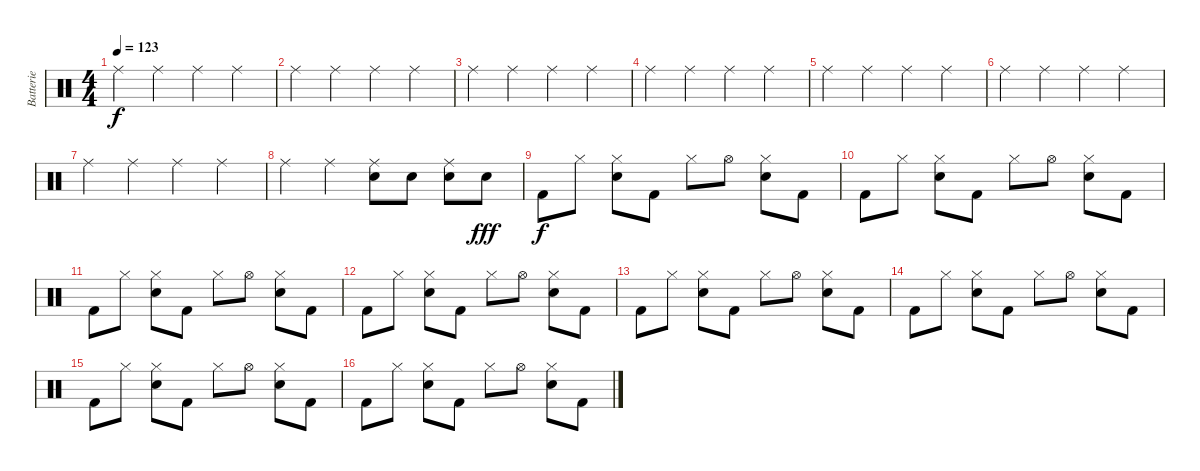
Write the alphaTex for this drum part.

\track ("Batterie" "Batterie") {instrument percussion}
\staff {score}
\articulation defaults
\ts (4 4)
\tempo 123
\clef neutral
\ks c "Ride (middle)".4{dy f} "Ride (middle)".4 "Ride (middle)".4 "Ride (middle)".4
|
"Ride (middle)".4 "Ride (middle)".4 "Ride (middle)".4 "Ride (middle)".4 |
"Ride (middle)".4 "Ride (middle)".4 "Ride (middle)".4 "Ride (middle)".4 |
"Ride (middle)".4 "Ride (middle)".4 "Ride (middle)".4 "Ride (middle)".4 |
"Ride (middle)".4 "Ride (middle)".4 "Ride (middle)".4 "Ride (middle)".4 |
"Ride (middle)".4 "Ride (middle)".4 "Ride (middle)".4 "Ride (middle)".4 |
"Ride (middle)".4 "Ride (middle)".4 "Ride (middle)".4 "Ride (middle)".4 |
"Ride (middle)".4 "Ride (middle)".4 ("Snare (hit) 2" "Ride (middle)").8 "Electric Snare (hit)".8 ("Electric Snare (hit)" "Ride (middle)").8 "Electric Snare (hit)".8{dy fff} |
"Kick (hit) 2".8{dy f} "Hi-Hat (closed)".8 ("Electric Snare (hit)" "Hi-Hat (closed)").8 "Kick (hit) 2".8 "Hi-Hat (closed)".8 "Hi-Hat (open)".8 ("Snare (hit) 2" "Hi-Hat (closed)").8 "Kick (hit) 2".8 |
"Kick (hit) 2".8 "Hi-Hat (closed)".8 ("Electric Snare (hit)" "Hi-Hat (closed)").8 "Kick (hit) 2".8 "Hi-Hat (closed)".8 "Hi-Hat (open)".8 ("Snare (hit) 2" "Hi-Hat (closed)").8 "Kick (hit) 2".8 |
"Kick (hit) 2".8 "Hi-Hat (closed)".8 ("Snare (hit) 2" "Hi-Hat (closed)").8 "Kick (hit) 2".8 "Hi-Hat (closed)".8 "Hi-Hat (open)".8 ("Electric Snare (hit)" "Hi-Hat (closed)").8 "Kick (hit) 2".8 |
"Kick (hit) 2".8 "Hi-Hat (closed)".8 ("Electric Snare (hit)" "Hi-Hat (closed)").8 "Kick (hit) 2".8 "Hi-Hat (closed)".8 "Hi-Hat (open)".8 ("Electric Snare (hit)" "Hi-Hat (closed)").8 "Kick (hit) 2".8 |
"Kick (hit) 2".8 "Hi-Hat (closed)".8 ("Electric Snare (hit)" "Hi-Hat (closed)").8 "Kick (hit) 2".8 "Hi-Hat (closed)".8 "Hi-Hat (open)".8 ("Snare (hit) 2" "Hi-Hat (closed)").8 "Kick (hit) 2".8 |
"Kick (hit) 2".8 "Hi-Hat (closed)".8 ("Electric Snare (hit)" "Hi-Hat (closed)").8 "Kick (hit) 2".8 "Hi-Hat (closed)".8 "Hi-Hat (open)".8 ("Electric Snare (hit)" "Hi-Hat (closed)").8 "Kick (hit) 2".8 |
"Kick (hit) 2".8 "Hi-Hat (closed)".8 ("Electric Snare (hit)" "Hi-Hat (closed)").8 "Kick (hit) 2".8 "Hi-Hat (closed)".8 "Hi-Hat (open)".8 ("Snare (hit) 2" "Hi-Hat (closed)").8 "Kick (hit) 2".8 |
"Kick (hit) 2".8 "Hi-Hat (closed)".8 ("Snare (hit) 2" "Hi-Hat (closed)").8 "Kick (hit) 2".8 "Hi-Hat (closed)".8 "Hi-Hat (open)".8 ("Electric Snare (hit)" "Hi-Hat (closed)").8 "Kick (hit) 2".8
